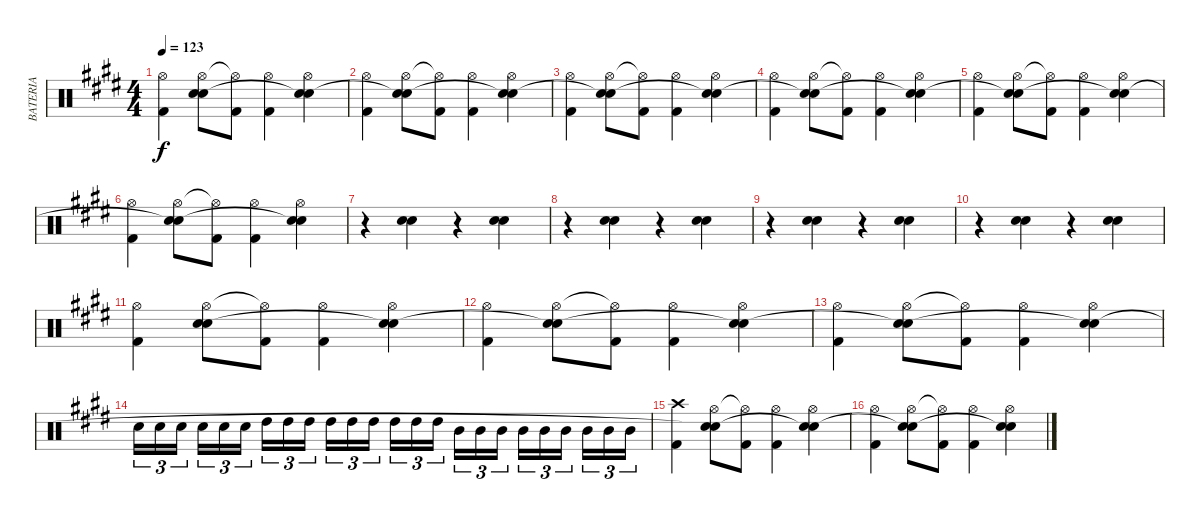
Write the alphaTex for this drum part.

\track ("BATERIA" "BATERIA") {instrument percussion}
\staff {score}
\articulation defaults
\ts (4 4)
\tempo 123
\clef neutral
\ks c#minor
("Hi-Hat (open)" "Kick (hit) 2").4{dy f} ("Hi-Hat (open)" "Snare (hit) 2" "Snare (hit)"{t}).8 ("Hi-Hat (open)"{t} "Kick (hit) 2").8 ("Hi-Hat (open)" "Kick (hit) 2").4 ("Hi-Hat (open)" "Snare (hit) 2" "Snare (hit)"{t}).4 |
("Hi-Hat (open)" "Kick (hit) 2").4 ("Hi-Hat (open)" "Snare (hit) 2" "Snare (hit)"{t}).8 ("Hi-Hat (open)"{t} "Kick (hit) 2").8 ("Hi-Hat (open)" "Kick (hit) 2").4 ("Hi-Hat (open)" "Snare (hit) 2" "Snare (hit)"{t}).4 |
("Hi-Hat (open)" "Kick (hit) 2").4 ("Hi-Hat (open)" "Snare (hit) 2" "Snare (hit)"{t}).8 ("Hi-Hat (open)"{t} "Kick (hit) 2").8 ("Hi-Hat (open)" "Kick (hit) 2").4 ("Hi-Hat (open)" "Snare (hit) 2" "Snare (hit)"{t}).4 |
("Hi-Hat (open)" "Kick (hit) 2").4 ("Hi-Hat (open)" "Snare (hit) 2" "Snare (hit)"{t}).8 ("Hi-Hat (open)"{t} "Kick (hit) 2").8 ("Hi-Hat (open)" "Kick (hit) 2").4 ("Hi-Hat (open)" "Snare (hit) 2" "Snare (hit)"{t}).4 |
("Hi-Hat (open)" "Kick (hit) 2").4 ("Hi-Hat (open)" "Snare (hit) 2" "Snare (hit)"{t}).8 ("Hi-Hat (open)"{t} "Kick (hit) 2").8 ("Hi-Hat (open)" "Kick (hit) 2").4 ("Hi-Hat (open)" "Snare (hit) 2" "Snare (hit)"{t}).4 |
("Hi-Hat (open)" "Kick (hit) 2").4 ("Hi-Hat (open)" "Snare (hit) 2" "Snare (hit)"{t}).8 ("Hi-Hat (open)"{t} "Kick (hit) 2").8 ("Hi-Hat (open)" "Kick (hit) 2").4 ("Hi-Hat (open)" "Snare (hit) 2" "Snare (hit)"{t}).4 |
r.4 ("Snare (hit) 2" "Snare (hit) 2").4 r.4 ("Snare (hit) 2" "Snare (hit) 2").4 |
r.4 ("Snare (hit) 2" "Snare (hit) 2").4 r.4 ("Snare (hit) 2" "Snare (hit) 2").4 |
r.4 ("Snare (hit) 2" "Snare (hit) 2").4 r.4 ("Snare (hit) 2" "Snare (hit) 2").4 |
r.4 ("Snare (hit) 2" "Snare (hit) 2").4 r.4 ("Snare (hit) 2" "Snare (hit) 2").4 |
("Hi-Hat (open)" "Kick (hit) 2").4 ("Hi-Hat (open)" "Snare (hit) 2" "Snare (hit)").8 ("Hi-Hat (open)"{t} "Kick (hit) 2").8 ("Hi-Hat (open)" "Kick (hit) 2").4 ("Hi-Hat (open)" "Snare (hit) 2" "Snare (hit)"{t}).4 |
("Hi-Hat (open)" "Kick (hit) 2").4 ("Hi-Hat (open)" "Snare (hit) 2" "Snare (hit)"{t}).8 ("Hi-Hat (open)"{t} "Kick (hit) 2").8 ("Hi-Hat (open)" "Kick (hit) 2").4 ("Hi-Hat (open)" "Snare (hit) 2" "Snare (hit)"{t}).4 |
("Hi-Hat (open)" "Kick (hit) 2").4 ("Hi-Hat (open)" "Snare (hit) 2" "Snare (hit)"{t}).8 ("Hi-Hat (open)"{t} "Kick (hit) 2").8 ("Hi-Hat (open)" "Kick (hit) 2").4 ("Hi-Hat (open)" "Snare (hit) 2" "Snare (hit)"{t}).4 |
"Snare (hit) 2".16{tu (3 2)} "Snare (hit) 2".16{tu (3 2)} "Snare (hit) 2".16{tu (3 2)} "Snare (hit) 2".16{tu (3 2)} "Snare (hit) 2".16{tu (3 2)} "Snare (hit) 2".16{tu (3 2)} "High Tom (hit)".16{tu (3 2)} "High Tom (hit)".16{tu (3 2)} "High Tom (hit)".16{tu (3 2)} "High Tom (hit)".16{tu (3 2)} "High Tom (hit)".16{tu (3 2)} "High Tom (hit)".16{tu (3 2)} "High Tom (hit)".16{tu (3 2)} "High Tom (hit)".16{tu (3 2)} "High Tom (hit)".16{tu (3 2)} "Mid Tom (hit)".16{tu (3 2)} "Mid Tom (hit)".16{tu (3 2)} "Mid Tom (hit)".16{tu (3 2)} "Mid Tom (hit)".16{tu (3 2)} "Mid Tom (hit)".16{tu (3 2)} "Mid Tom (hit)".16{tu (3 2)} "Mid Tom (hit)".16{tu (3 2)} "Mid Tom (hit)".16{tu (3 2)} "Mid Tom (hit)".16{tu (3 2)} |
("Crash high (hit)" "Kick (hit) 2").4 ("Hi-Hat (open)" "Snare (hit) 2" "Snare (hit)"{t}).8 ("Hi-Hat (open)"{t} "Kick (hit) 2").8 ("Hi-Hat (open)" "Kick (hit) 2").4 ("Hi-Hat (open)" "Snare (hit) 2" "Snare (hit)"{t}).4 |
("Hi-Hat (open)" "Kick (hit) 2").4 ("Hi-Hat (open)" "Snare (hit) 2" "Snare (hit)"{t}).8 ("Hi-Hat (open)"{t} "Kick (hit) 2").8 ("Hi-Hat (open)" "Kick (hit) 2").4 ("Hi-Hat (open)" "Snare (hit) 2" "Snare (hit)"{t}).4
